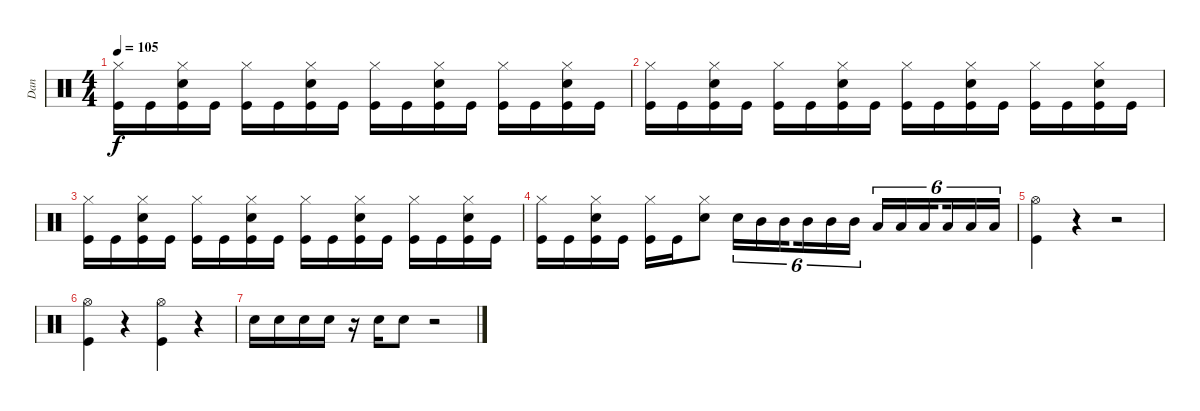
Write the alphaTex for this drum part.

\track ("Dan" "Dan") {instrument percussion}
\staff {score}
\articulation defaults
\ts (4 4)
\tempo 105
\clef neutral
\ks c
("Hi-Hat (closed)" "Kick (hit)").16{dy f} "Kick (hit)".16 ("Hi-Hat (closed)" "Snare (hit) 2" "Kick (hit)").16 "Kick (hit)".16 ("Hi-Hat (closed)" "Kick (hit)").16 "Kick (hit)".16 ("Hi-Hat (closed)" "Snare (hit) 2" "Kick (hit)").16 "Kick (hit)".16 ("Hi-Hat (closed)" "Kick (hit)").16 "Kick (hit)".16 ("Hi-Hat (closed)" "Snare (hit) 2" "Kick (hit)").16 "Kick (hit)".16 ("Hi-Hat (closed)" "Kick (hit)").16 "Kick (hit)".16 ("Hi-Hat (closed)" "Snare (hit) 2" "Kick (hit)").16 "Kick (hit)".16 |
("Hi-Hat (closed)" "Kick (hit)").16 "Kick (hit)".16 ("Hi-Hat (closed)" "Snare (hit) 2" "Kick (hit)").16 "Kick (hit)".16 ("Hi-Hat (closed)" "Kick (hit)").16 "Kick (hit)".16 ("Hi-Hat (closed)" "Snare (hit) 2" "Kick (hit)").16 "Kick (hit)".16 ("Hi-Hat (closed)" "Kick (hit)").16 "Kick (hit)".16 ("Hi-Hat (closed)" "Snare (hit) 2" "Kick (hit)").16 "Kick (hit)".16 ("Hi-Hat (closed)" "Kick (hit)").16 "Kick (hit)".16 ("Hi-Hat (closed)" "Snare (hit) 2" "Kick (hit)").16 "Kick (hit)".16 |
("Hi-Hat (closed)" "Kick (hit)").16 "Kick (hit)".16 ("Hi-Hat (closed)" "Snare (hit) 2" "Kick (hit)").16 "Kick (hit)".16 ("Hi-Hat (closed)" "Kick (hit)").16 "Kick (hit)".16 ("Hi-Hat (closed)" "Snare (hit) 2" "Kick (hit)").16 "Kick (hit)".16 ("Hi-Hat (closed)" "Kick (hit)").16 "Kick (hit)".16 ("Hi-Hat (closed)" "Snare (hit) 2" "Kick (hit)").16 "Kick (hit)".16 ("Hi-Hat (closed)" "Kick (hit)").16 "Kick (hit)".16 ("Hi-Hat (closed)" "Snare (hit) 2" "Kick (hit)").16 "Kick (hit)".16 |
("Hi-Hat (closed)" "Kick (hit)").16 "Kick (hit)".16 ("Hi-Hat (closed)" "Snare (hit) 2" "Kick (hit)").16 "Kick (hit)".16 ("Hi-Hat (closed)" "Kick (hit)").16 "Kick (hit)".16 ("Hi-Hat (closed)" "Snare (hit) 2").8 "Snare (hit) 2".16{tu (6 4)} "Mid Tom (hit)".16{tu (6 4)} "Mid Tom (hit)".16{tu (6 4) beam splitsecondary} "Mid Tom (hit)".16{tu (6 4)} "Mid Tom (hit)".16{tu (6 4)} "Mid Tom (hit)".16{tu (6 4)} "Low Tom (hit)".16{tu (6 4)} "Low Tom (hit)".16{tu (6 4)} "Low Tom (hit)".16{tu (6 4) beam splitsecondary} "Low Tom (hit)".16{tu (6 4)} "Low Tom (hit)".16{tu (6 4)} "Low Tom (hit)".16{tu (6 4)} |
("Hi-Hat (open)" "Kick (hit)").4 r.4 r.2 |
("Hi-Hat (open)" "Kick (hit)").4 r.4 ("Hi-Hat (open)" "Kick (hit)").4 r.4 |
"Snare (hit) 2".16 "Snare (hit) 2".16 "Snare (hit) 2".16 "Snare (hit) 2".16 r.16 "Snare (hit) 2".16 "Snare (hit) 2".8 r.2
